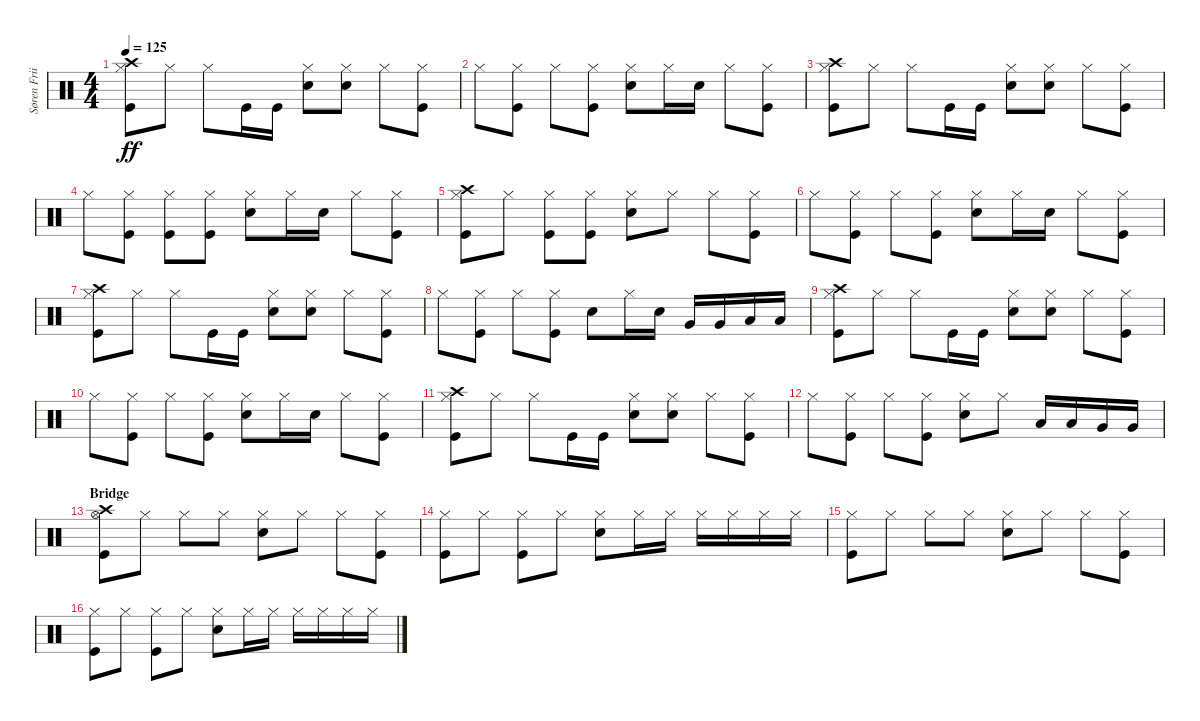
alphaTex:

\track ("Søren Friis - Drums" "Søren Frii") {instrument percussion}
\staff {score}
\articulation defaults
\ts (4 4)
\tempo 125
\clef neutral
\ks c
("Kick (hit)" "Hi-Hat (closed)" "Crash high (hit)").8{dy ff} "Hi-Hat (closed)".8 "Hi-Hat (closed)".8 "Kick (hit)".16 "Kick (hit)".16 ("Snare (hit) 2" "Hi-Hat (closed)").8 ("Snare (hit) 2" "Hi-Hat (closed)").8 "Hi-Hat (closed)".8 ("Kick (hit)" "Hi-Hat (closed)").8 |
"Hi-Hat (closed)".8 ("Kick (hit)" "Hi-Hat (closed)").8 "Hi-Hat (closed)".8 ("Kick (hit)" "Hi-Hat (closed)").8 ("Snare (hit) 2" "Hi-Hat (closed)").8 "Hi-Hat (closed)".16 "Snare (hit) 2".16 "Hi-Hat (closed)".8 ("Kick (hit)" "Hi-Hat (closed)").8 |
("Kick (hit)" "Hi-Hat (closed)" "Crash high (hit)").8 "Hi-Hat (closed)".8 "Hi-Hat (closed)".8 "Kick (hit)".16 "Kick (hit)".16 ("Snare (hit) 2" "Hi-Hat (closed)").8 ("Snare (hit) 2" "Hi-Hat (closed)").8 "Hi-Hat (closed)".8 ("Kick (hit)" "Hi-Hat (closed)").8 |
"Hi-Hat (closed)".8 ("Kick (hit)" "Hi-Hat (closed)").8 ("Kick (hit)" "Hi-Hat (closed)").8 ("Kick (hit)" "Hi-Hat (closed)").8 ("Snare (hit) 2" "Hi-Hat (closed)").8 "Hi-Hat (closed)".16 "Snare (hit) 2".16 "Hi-Hat (closed)".8 ("Kick (hit)" "Hi-Hat (closed)").8 |
("Kick (hit)" "Hi-Hat (closed)" "Crash high (hit)").8 "Hi-Hat (closed)".8 ("Kick (hit)" "Hi-Hat (closed)").8 ("Kick (hit)" "Hi-Hat (closed)").8 ("Snare (hit) 2" "Hi-Hat (closed)").8 "Hi-Hat (closed)".8 "Hi-Hat (closed)".8 ("Kick (hit)" "Hi-Hat (closed)").8 |
"Hi-Hat (closed)".8 ("Kick (hit)" "Hi-Hat (closed)").8 "Hi-Hat (closed)".8 ("Kick (hit)" "Hi-Hat (closed)").8 ("Snare (hit) 2" "Hi-Hat (closed)").8 "Hi-Hat (closed)".16 "Snare (hit) 2".16 "Hi-Hat (closed)".8 ("Kick (hit)" "Hi-Hat (closed)").8 |
("Kick (hit)" "Hi-Hat (closed)" "Crash high (hit)").8 "Hi-Hat (closed)".8 "Hi-Hat (closed)".8 "Kick (hit)".16 "Kick (hit)".16 ("Snare (hit) 2" "Hi-Hat (closed)").8 ("Snare (hit) 2" "Hi-Hat (closed)").8 "Hi-Hat (closed)".8 ("Kick (hit)" "Hi-Hat (closed)").8 |
"Hi-Hat (closed)".8 ("Kick (hit)" "Hi-Hat (closed)").8 "Hi-Hat (closed)".8 ("Kick (hit)" "Hi-Hat (closed)").8 "Snare (hit) 2".8 "Hi-Hat (closed)".16 "Snare (hit) 2".16 "Very Low Tom (hit)".16 "Very Low Tom (hit)".16 "Low Floor Tom (hit)".16 "Low Floor Tom (hit)".16 |
("Kick (hit)" "Hi-Hat (closed)" "Crash high (hit)").8 "Hi-Hat (closed)".8 "Hi-Hat (closed)".8 "Kick (hit)".16 "Kick (hit)".16 ("Snare (hit) 2" "Hi-Hat (closed)").8 ("Snare (hit) 2" "Hi-Hat (closed)").8 "Hi-Hat (closed)".8 ("Kick (hit)" "Hi-Hat (closed)").8 |
"Hi-Hat (closed)".8 ("Kick (hit)" "Hi-Hat (closed)").8 "Hi-Hat (closed)".8 ("Kick (hit)" "Hi-Hat (closed)").8 ("Snare (hit) 2" "Hi-Hat (closed)").8 "Hi-Hat (closed)".16 "Snare (hit) 2".16 "Hi-Hat (closed)".8 ("Kick (hit)" "Hi-Hat (closed)").8 |
("Kick (hit)" "Hi-Hat (closed)" "Crash high (hit)").8 "Hi-Hat (closed)".8 "Hi-Hat (closed)".8 "Kick (hit)".16 "Kick (hit)".16 ("Snare (hit) 2" "Hi-Hat (closed)").8 ("Snare (hit) 2" "Hi-Hat (closed)").8 "Hi-Hat (closed)".8 ("Kick (hit)" "Hi-Hat (closed)").8 |
"Hi-Hat (closed)".8 ("Kick (hit)" "Hi-Hat (closed)").8 "Hi-Hat (closed)".8 ("Kick (hit)" "Hi-Hat (closed)").8 ("Snare (hit) 2" "Hi-Hat (closed)").8 "Hi-Hat (closed)".8 "Low Tom (hit)".16 "Low Tom (hit)".16 "Very Low Tom (hit)".16 "Very Low Tom (hit)".16 |
\section ("" "Bridge")
("Kick (hit)" "Hi-Hat (open)" "Crash high (hit)").8 "Hi-Hat (closed)".8 "Hi-Hat (closed)".8 "Hi-Hat (closed)".8 ("Snare (hit) 2" "Hi-Hat (closed)").8 "Hi-Hat (closed)".8 "Hi-Hat (closed)".8 ("Kick (hit)" "Hi-Hat (closed)").8 |
("Kick (hit)" "Hi-Hat (closed)").8 "Hi-Hat (closed)".8 ("Kick (hit)" "Hi-Hat (closed)").8 "Hi-Hat (closed)".8 ("Snare (hit) 2" "Hi-Hat (closed)").8 "Hi-Hat (closed)".16 "Hi-Hat (closed)".16 "Hi-Hat (closed)".16 "Hi-Hat (closed)".16 "Hi-Hat (closed)".16 "Hi-Hat (closed)".16 |
("Kick (hit)" "Hi-Hat (closed)").8 "Hi-Hat (closed)".8 "Hi-Hat (closed)".8 "Hi-Hat (closed)".8 ("Snare (hit) 2" "Hi-Hat (closed)").8 "Hi-Hat (closed)".8 "Hi-Hat (closed)".8 ("Kick (hit)" "Hi-Hat (closed)").8 |
("Kick (hit)" "Hi-Hat (closed)").8 "Hi-Hat (closed)".8 ("Kick (hit)" "Hi-Hat (closed)").8 "Hi-Hat (closed)".8 ("Snare (hit) 2" "Hi-Hat (closed)").8 "Hi-Hat (closed)".16 "Hi-Hat (closed)".16 "Hi-Hat (closed)".16 "Hi-Hat (closed)".16 "Hi-Hat (closed)".16 "Hi-Hat (closed)".16
